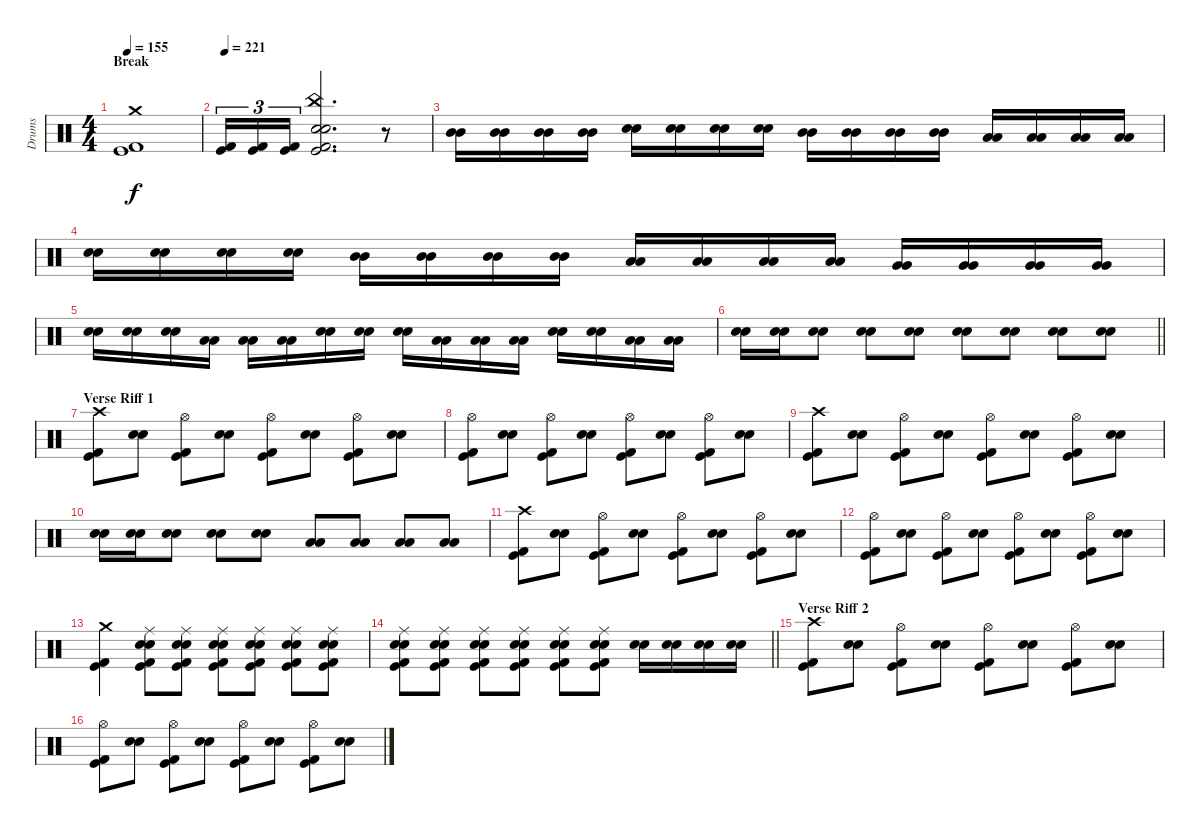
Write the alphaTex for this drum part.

\track ("Drums" "Drums") {instrument percussion}
\staff {score}
\articulation defaults
\ts (4 4)
\section ("" "Break")
\tempo 155
\clef neutral
\ks c
("Crash medium (hit)" "Kick (hit) 2" "Kick (hit)").1{dy f} |
\tempo 221
("Kick (hit) 2" "Kick (hit)").16{tu (3 2)} ("Kick (hit) 2" "Kick (hit)").16{tu (3 2)} ("Kick (hit) 2" "Kick (hit)").16{tu (3 2)} ("China (hit)" "Electric Snare (hit)" "Electric Snare (hit)" "Kick (hit)" "Kick (hit) 2").2{d} r.8 |
("Mid Tom (hit)" "Mid Tom (hit)").16 ("Mid Tom (hit)" "Mid Tom (hit)").16 ("Mid Tom (hit)" "Mid Tom (hit)").16 ("Mid Tom (hit)" "Mid Tom (hit)").16 ("Electric Snare (hit)" "Electric Snare (hit)").16 ("Electric Snare (hit)" "Electric Snare (hit)").16 ("Electric Snare (hit)" "Electric Snare (hit)").16 ("Electric Snare (hit)" "Electric Snare (hit)").16 ("Mid Tom (hit)" "Mid Tom (hit)").16 ("Mid Tom (hit)" "Mid Tom (hit)").16 ("Mid Tom (hit)" "Mid Tom (hit)").16 ("Mid Tom (hit)" "Mid Tom (hit)").16 ("Low Tom (hit)" "Low Tom (hit)").16 ("Low Tom (hit)" "Low Tom (hit)").16 ("Low Tom (hit)" "Low Tom (hit)").16 ("Low Tom (hit)" "Low Tom (hit)").16 |
("Electric Snare (hit)" "Electric Snare (hit)").16 ("Electric Snare (hit)" "Electric Snare (hit)").16 ("Electric Snare (hit)" "Electric Snare (hit)").16 ("Electric Snare (hit)" "Electric Snare (hit)").16 ("Mid Tom (hit)" "Mid Tom (hit)").16 ("Mid Tom (hit)" "Mid Tom (hit)").16 ("Mid Tom (hit)" "Mid Tom (hit)").16 ("Mid Tom (hit)" "Mid Tom (hit)").16 ("Low Tom (hit)" "Low Tom (hit)").16 ("Low Tom (hit)" "Low Tom (hit)").16 ("Low Tom (hit)" "Low Tom (hit)").16 ("Low Tom (hit)" "Low Tom (hit)").16 ("Very Low Tom (hit)" "Very Low Tom (hit)").16 ("Very Low Tom (hit)" "Very Low Tom (hit)").16 ("Very Low Tom (hit)" "Very Low Tom (hit)").16 ("Very Low Tom (hit)" "Very Low Tom (hit)").16 |
("Electric Snare (hit)" "Electric Snare (hit)").16 ("Electric Snare (hit)" "Electric Snare (hit)").16 ("Electric Snare (hit)" "Electric Snare (hit)").16 ("Low Tom (hit)" "Low Tom (hit)").16 ("Low Tom (hit)" "Low Tom (hit)").16 ("Low Tom (hit)" "Low Tom (hit)").16 ("Electric Snare (hit)" "Electric Snare (hit)").16 ("Electric Snare (hit)" "Electric Snare (hit)").16 ("Electric Snare (hit)" "Electric Snare (hit)").16 ("Low Tom (hit)" "Low Tom (hit)").16 ("Low Tom (hit)" "Low Tom (hit)").16 ("Low Tom (hit)" "Low Tom (hit)").16 ("Electric Snare (hit)" "Electric Snare (hit)").16 ("Electric Snare (hit)" "Electric Snare (hit)").16 ("Low Tom (hit)" "Low Tom (hit)").16 ("Low Tom (hit)" "Low Tom (hit)").16 |
\barLineRight lightlight
("Electric Snare (hit)" "Electric Snare (hit)").16 ("Electric Snare (hit)" "Electric Snare (hit)").16 ("Electric Snare (hit)" "Electric Snare (hit)").8 ("Electric Snare (hit)" "Electric Snare (hit)").8 ("Electric Snare (hit)" "Electric Snare (hit)").8 ("Electric Snare (hit)" "Electric Snare (hit)").8 ("Electric Snare (hit)" "Electric Snare (hit)").8 ("Electric Snare (hit)" "Electric Snare (hit)").8 ("Electric Snare (hit)" "Electric Snare (hit)").8 |
\section ("" "Verse Riff 1")
("Crash high (hit)" "Kick (hit) 2" "Kick (hit)").8 ("Electric Snare (hit)" "Electric Snare (hit)").8 ("Hi-Hat (open)" "Kick (hit) 2" "Kick (hit)").8 ("Electric Snare (hit)" "Electric Snare (hit)").8 ("Hi-Hat (open)" "Kick (hit) 2" "Kick (hit)").8 ("Electric Snare (hit)" "Electric Snare (hit)").8 ("Hi-Hat (open)" "Kick (hit) 2" "Kick (hit)").8 ("Electric Snare (hit)" "Electric Snare (hit)").8 |
("Hi-Hat (open)" "Kick (hit) 2" "Kick (hit)").8 ("Electric Snare (hit)" "Electric Snare (hit)").8 ("Hi-Hat (open)" "Kick (hit) 2" "Kick (hit)").8 ("Electric Snare (hit)" "Electric Snare (hit)").8 ("Hi-Hat (open)" "Kick (hit) 2" "Kick (hit)").8 ("Electric Snare (hit)" "Electric Snare (hit)").8 ("Hi-Hat (open)" "Kick (hit) 2" "Kick (hit)").8 ("Electric Snare (hit)" "Electric Snare (hit)").8 |
("Crash high (hit)" "Kick (hit) 2" "Kick (hit)").8 ("Electric Snare (hit)" "Electric Snare (hit)").8 ("Hi-Hat (open)" "Kick (hit) 2" "Kick (hit)").8 ("Electric Snare (hit)" "Electric Snare (hit)").8 ("Hi-Hat (open)" "Kick (hit) 2" "Kick (hit)").8 ("Electric Snare (hit)" "Electric Snare (hit)").8 ("Hi-Hat (open)" "Kick (hit) 2" "Kick (hit)").8 ("Electric Snare (hit)" "Electric Snare (hit)").8 |
("Electric Snare (hit)" "Electric Snare (hit)").16 ("Electric Snare (hit)" "Electric Snare (hit)").16 ("Electric Snare (hit)" "Electric Snare (hit)").8 ("Electric Snare (hit)" "Electric Snare (hit)").8 ("Electric Snare (hit)" "Electric Snare (hit)").8 ("Low Tom (hit)" "Low Tom (hit)").8 ("Low Tom (hit)" "Low Tom (hit)").8 ("Low Tom (hit)" "Low Tom (hit)").8 ("Low Tom (hit)" "Low Tom (hit)").8 |
("Crash high (hit)" "Kick (hit) 2" "Kick (hit)").8 ("Electric Snare (hit)" "Electric Snare (hit)").8 ("Hi-Hat (open)" "Kick (hit) 2" "Kick (hit)").8 ("Electric Snare (hit)" "Electric Snare (hit)").8 ("Hi-Hat (open)" "Kick (hit) 2" "Kick (hit)").8 ("Electric Snare (hit)" "Electric Snare (hit)").8 ("Hi-Hat (open)" "Kick (hit) 2" "Kick (hit)").8 ("Electric Snare (hit)" "Electric Snare (hit)").8 |
("Hi-Hat (open)" "Kick (hit) 2" "Kick (hit)").8 ("Electric Snare (hit)" "Electric Snare (hit)").8 ("Hi-Hat (open)" "Kick (hit) 2" "Kick (hit)").8 ("Electric Snare (hit)" "Electric Snare (hit)").8 ("Hi-Hat (open)" "Kick (hit) 2" "Kick (hit)").8 ("Electric Snare (hit)" "Electric Snare (hit)").8 ("Hi-Hat (open)" "Kick (hit) 2" "Kick (hit)").8 ("Electric Snare (hit)" "Electric Snare (hit)").8 |
("Crash medium (hit)" "Kick (hit) 2" "Kick (hit)").4 ("Ride (middle)" "Electric Snare (hit)" "Electric Snare (hit)" "Kick (hit) 2" "Kick (hit)").8 ("Ride (middle)" "Electric Snare (hit)" "Electric Snare (hit)" "Kick (hit) 2" "Kick (hit)").8 ("Ride (middle)" "Electric Snare (hit)" "Electric Snare (hit)" "Kick (hit) 2" "Kick (hit)").8 ("Ride (middle)" "Electric Snare (hit)" "Electric Snare (hit)" "Kick (hit) 2" "Kick (hit)").8 ("Ride (middle)" "Electric Snare (hit)" "Electric Snare (hit)" "Kick (hit) 2" "Kick (hit)").8 ("Ride (middle)" "Electric Snare (hit)" "Electric Snare (hit)" "Kick (hit) 2" "Kick (hit)").8 |
\barLineRight lightlight
("Ride (middle)" "Electric Snare (hit)" "Electric Snare (hit)" "Kick (hit) 2" "Kick (hit)").8 ("Ride (middle)" "Electric Snare (hit)" "Electric Snare (hit)" "Kick (hit) 2" "Kick (hit)").8 ("Ride (middle)" "Electric Snare (hit)" "Electric Snare (hit)" "Kick (hit) 2" "Kick (hit)").8 ("Ride (middle)" "Electric Snare (hit)" "Electric Snare (hit)" "Kick (hit) 2" "Kick (hit)").8 ("Ride (middle)" "Electric Snare (hit)" "Electric Snare (hit)" "Kick (hit) 2" "Kick (hit)").8 ("Ride (middle)" "Electric Snare (hit)" "Electric Snare (hit)" "Kick (hit) 2" "Kick (hit)").8 ("Electric Snare (hit)" "Electric Snare (hit)").16 ("Electric Snare (hit)" "Electric Snare (hit)").16 ("Electric Snare (hit)" "Electric Snare (hit)").16 ("Electric Snare (hit)" "Electric Snare (hit)").16 |
\section ("" "Verse Riff 2")
("Crash high (hit)" "Kick (hit) 2" "Kick (hit)").8 ("Electric Snare (hit)" "Electric Snare (hit)").8 ("Hi-Hat (open)" "Kick (hit) 2" "Kick (hit)").8 ("Electric Snare (hit)" "Electric Snare (hit)").8 ("Hi-Hat (open)" "Kick (hit) 2" "Kick (hit)").8 ("Electric Snare (hit)" "Electric Snare (hit)").8 ("Hi-Hat (open)" "Kick (hit) 2" "Kick (hit)").8 ("Electric Snare (hit)" "Electric Snare (hit)").8 |
("Hi-Hat (open)" "Kick (hit) 2" "Kick (hit)").8 ("Electric Snare (hit)" "Electric Snare (hit)").8 ("Hi-Hat (open)" "Kick (hit) 2" "Kick (hit)").8 ("Electric Snare (hit)" "Electric Snare (hit)").8 ("Hi-Hat (open)" "Kick (hit) 2" "Kick (hit)").8 ("Electric Snare (hit)" "Electric Snare (hit)").8 ("Hi-Hat (open)" "Kick (hit) 2" "Kick (hit)").8 ("Electric Snare (hit)" "Electric Snare (hit)").8
